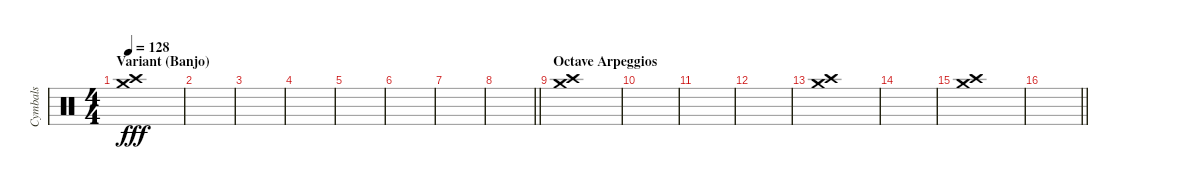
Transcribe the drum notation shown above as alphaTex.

\track ("Cymbals" "Cymbals") {instrument percussion}
\staff {score}
\articulation defaults
\ts (4 4)
\section ("" "Variant (Banjo)")
\tempo 128
\clef neutral
\ks c
("Crash high (hit)" "Crash medium (hit)").1{dy fff} |
|
|
|
|
|
|
\barLineRight lightlight
|
\section ("" "Octave Arpeggios")
("Crash high (hit)" "Crash medium (hit)").1 |
|
|
|
("Crash high (hit)" "Crash medium (hit)").1 |
|
("Crash high (hit)" "Crash medium (hit)").1 |
\barLineRight lightlight
